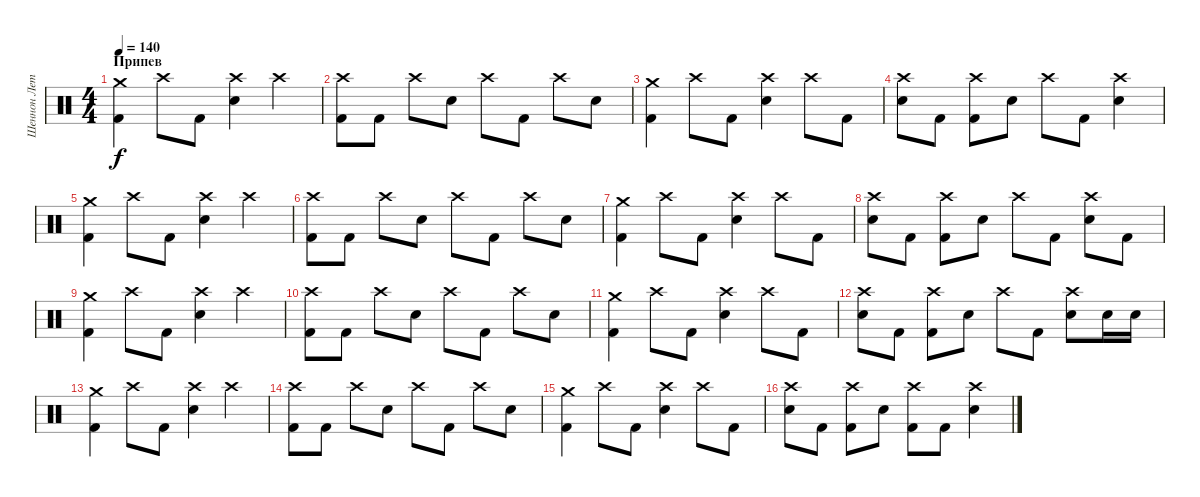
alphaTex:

\track ("Шеннон Лето" "Шеннон Лет") {instrument percussion}
\staff {score}
\articulation defaults
\ts (4 4)
\section ("" "Припев")
\tempo 140
\clef neutral
\ks c
("Crash medium (hit)" "Kick (hit) 2").4{dy f} "Crash high (hit)".8 "Kick (hit) 2".8 ("Crash high (hit)" "Electric Snare (hit)").4 "Crash high (hit)".4 |
("Crash high (hit)" "Kick (hit) 2").8 "Kick (hit) 2".8 "Crash high (hit)".8 "Electric Snare (hit)".8 "Crash high (hit)".8 "Kick (hit) 2".8 "Crash high (hit)".8 "Electric Snare (hit)".8 |
("Crash medium (hit)" "Kick (hit) 2").4 "Crash high (hit)".8 "Kick (hit) 2".8 ("Crash high (hit)" "Electric Snare (hit)").4 "Crash high (hit)".8 "Kick (hit) 2".8 |
("Crash high (hit)" "Electric Snare (hit)").8 "Kick (hit) 2".8 ("Crash high (hit)" "Kick (hit) 2").8 "Electric Snare (hit)".8 "Crash high (hit)".8 "Kick (hit) 2".8 ("Crash high (hit)" "Electric Snare (hit)").4 |
("Crash medium (hit)" "Kick (hit) 2").4 "Crash high (hit)".8 "Kick (hit) 2".8 ("Crash high (hit)" "Electric Snare (hit)").4 "Crash high (hit)".4 |
("Crash high (hit)" "Kick (hit) 2").8 "Kick (hit) 2".8 "Crash high (hit)".8 "Electric Snare (hit)".8 "Crash high (hit)".8 "Kick (hit) 2".8 "Crash high (hit)".8 "Electric Snare (hit)".8 |
("Crash medium (hit)" "Kick (hit) 2").4 "Crash high (hit)".8 "Kick (hit) 2".8 ("Crash high (hit)" "Electric Snare (hit)").4 "Crash high (hit)".8 "Kick (hit) 2".8 |
("Crash high (hit)" "Electric Snare (hit)").8 "Kick (hit) 2".8 ("Crash high (hit)" "Kick (hit) 2").8 "Electric Snare (hit)".8 "Crash high (hit)".8 "Kick (hit) 2".8 ("Crash high (hit)" "Electric Snare (hit)").8 "Kick (hit) 2".8 |
("Crash medium (hit)" "Kick (hit) 2").4 "Crash high (hit)".8 "Kick (hit) 2".8 ("Crash high (hit)" "Electric Snare (hit)").4 "Crash high (hit)".4 |
("Crash high (hit)" "Kick (hit) 2").8 "Kick (hit) 2".8 "Crash high (hit)".8 "Electric Snare (hit)".8 "Crash high (hit)".8 "Kick (hit) 2".8 "Crash high (hit)".8 "Electric Snare (hit)".8 |
("Crash medium (hit)" "Kick (hit) 2").4 "Crash high (hit)".8 "Kick (hit) 2".8 ("Crash high (hit)" "Electric Snare (hit)").4 "Crash high (hit)".8 "Kick (hit) 2".8 |
("Crash high (hit)" "Electric Snare (hit)").8 "Kick (hit) 2".8 ("Crash high (hit)" "Kick (hit) 2").8 "Electric Snare (hit)".8 "Crash high (hit)".8 "Kick (hit) 2".8 ("Crash high (hit)" "Electric Snare (hit)").8 "Electric Snare (hit)".16 "Electric Snare (hit)".16 |
("Crash medium (hit)" "Kick (hit) 2").4 "Crash high (hit)".8 "Kick (hit) 2".8 ("Crash high (hit)" "Electric Snare (hit)").4 "Crash high (hit)".4 |
("Crash high (hit)" "Kick (hit) 2").8 "Kick (hit) 2".8 "Crash high (hit)".8 "Electric Snare (hit)".8 "Crash high (hit)".8 "Kick (hit) 2".8 "Crash high (hit)".8 "Electric Snare (hit)".8 |
("Crash medium (hit)" "Kick (hit) 2").4 "Crash high (hit)".8 "Kick (hit) 2".8 ("Crash high (hit)" "Electric Snare (hit)").4 "Crash high (hit)".8 "Kick (hit) 2".8 |
("Crash high (hit)" "Electric Snare (hit)").8 "Kick (hit) 2".8 ("Crash high (hit)" "Kick (hit) 2").8 "Electric Snare (hit)".8 ("Crash high (hit)" "Kick (hit) 2").8 "Kick (hit) 2".8 ("Crash high (hit)" "Electric Snare (hit)").4
